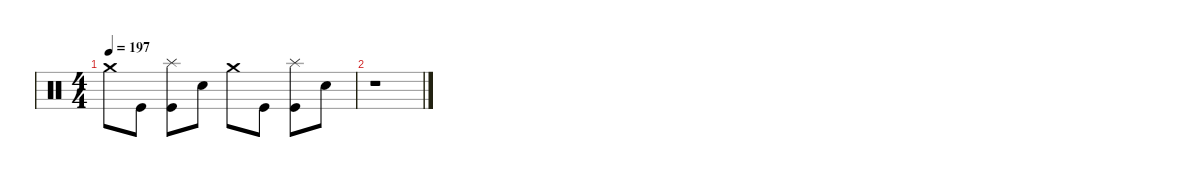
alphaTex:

\defaultSystemsLayout 4
\hideDynamics
\bracketExtendMode nobrackets
\singleTrackTrackNamePolicy hidden
\multiTrackTrackNamePolicy hidden
\firstSystemTrackNameMode fullname
\firstSystemTrackNameOrientation horizontal
\otherSystemsTrackNameOrientation horizontal
\track ("Drums" "drm.") {defaultSystemsLayout 4 instrument percussion}
\staff {score}
\articulation defaults
\ts (4 4)
\tempo 197
\clef neutral
\ks c "Crash medium (hit)".8{dy mf beam Down} "Kick (hit)".8{dy f beam Down}
("Splash (hit)" "Kick (hit)").8{dy mf beam Down} "Snare (hit) 2".8{dy f beam Down} "Crash medium (hit)".8{dy mf beam Down} "Kick (hit)".8{dy f beam Down} ("Splash (hit)" "Kick (hit)").8{dy mf beam Down} "Snare (hit) 2".8{dy f beam Down} |
r.1{beam Down}
